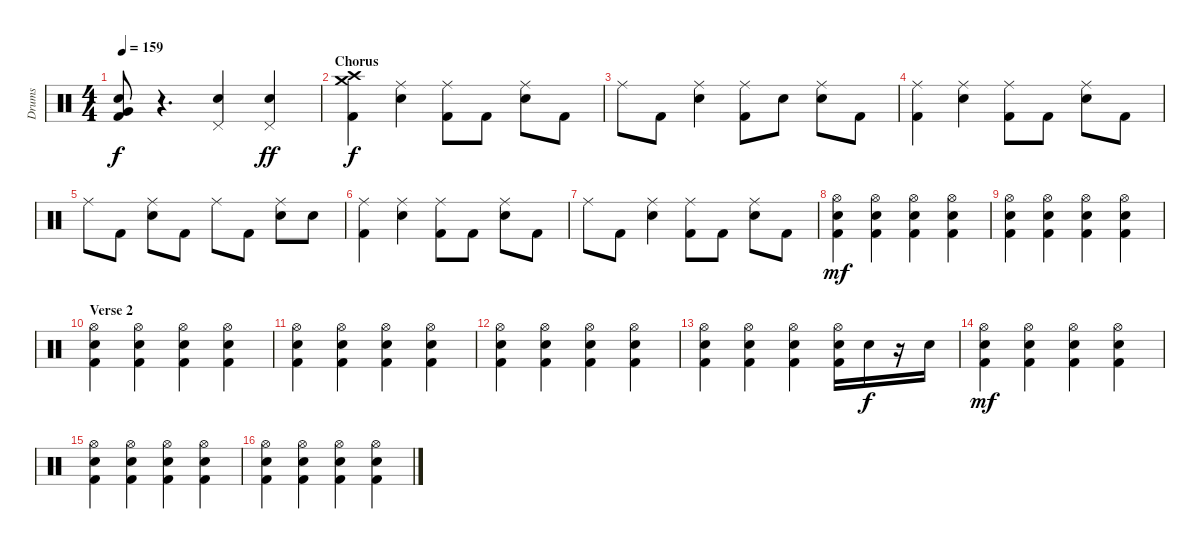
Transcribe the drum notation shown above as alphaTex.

\track ("Drums" "Drums") {instrument percussion}
\staff {score}
\articulation defaults
\ts (4 4)
\tempo 159
\clef neutral
\ks c
("Snare (hit) 2" "Very Low Tom (hit)" "Kick (hit) 2").8{dy f} r.4{d} ("Pedal Hi-Hat (hit)" "Snare (hit) 2").4 ("Pedal Hi-Hat (hit)" "Snare (hit) 2").4{dy ff} |
\section ("" "Chorus")
("Crash medium (hit)" "Crash high (hit)" "Kick (hit) 2").4{dy f} ("Ride (middle)" "Snare (hit) 2").4 ("Ride (middle)" "Kick (hit) 2").8 "Kick (hit) 2".8 ("Ride (middle)" "Snare (hit) 2").8 "Kick (hit) 2".8 |
"Ride (middle)".8 "Kick (hit) 2".8 ("Ride (middle)" "Snare (hit) 2").4 ("Ride (middle)" "Kick (hit) 2").8 "Snare (hit) 2".8 ("Ride (middle)" "Snare (hit) 2").8 "Kick (hit) 2".8 |
("Ride (middle)" "Kick (hit) 2").4 ("Ride (middle)" "Snare (hit) 2").4 ("Ride (middle)" "Kick (hit) 2").8 "Kick (hit) 2".8 ("Ride (middle)" "Snare (hit) 2").8 "Kick (hit) 2".8 |
"Ride (middle)".8 "Kick (hit) 2".8 ("Ride (middle)" "Snare (hit) 2").8 "Kick (hit) 2".8 "Ride (middle)".8 "Kick (hit) 2".8 ("Ride (middle)" "Snare (hit) 2").8 "Snare (hit) 2".8 |
("Ride (middle)" "Kick (hit) 2").4 ("Ride (middle)" "Snare (hit) 2").4 ("Ride (middle)" "Kick (hit) 2").8 "Kick (hit) 2".8 ("Ride (middle)" "Snare (hit) 2").8 "Kick (hit) 2".8 |
"Ride (middle)".8 "Kick (hit) 2".8 ("Ride (middle)" "Snare (hit) 2").4 ("Ride (middle)" "Kick (hit) 2").8 "Kick (hit) 2".8 ("Ride (middle)" "Snare (hit) 2").8 "Kick (hit) 2".8 |
("Hi-Hat (open)" "Snare (hit) 2" "Kick (hit) 2").4{dy mf} ("Hi-Hat (open)" "Snare (hit) 2" "Kick (hit) 2").4 ("Hi-Hat (open)" "Snare (hit) 2" "Kick (hit) 2").4 ("Hi-Hat (open)" "Snare (hit) 2" "Kick (hit) 2").4 |
("Hi-Hat (open)" "Snare (hit) 2" "Kick (hit) 2").4 ("Hi-Hat (open)" "Snare (hit) 2" "Kick (hit) 2").4 ("Hi-Hat (open)" "Snare (hit) 2" "Kick (hit) 2").4 ("Hi-Hat (open)" "Snare (hit) 2" "Kick (hit) 2").4 |
\section ("" "Verse 2")
("Hi-Hat (open)" "Snare (hit) 2" "Kick (hit) 2").4 ("Hi-Hat (open)" "Snare (hit) 2" "Kick (hit) 2").4 ("Hi-Hat (open)" "Snare (hit) 2" "Kick (hit) 2").4 ("Hi-Hat (open)" "Snare (hit) 2" "Kick (hit) 2").4 |
("Hi-Hat (open)" "Snare (hit) 2" "Kick (hit) 2").4 ("Hi-Hat (open)" "Snare (hit) 2" "Kick (hit) 2").4 ("Hi-Hat (open)" "Snare (hit) 2" "Kick (hit) 2").4 ("Hi-Hat (open)" "Snare (hit) 2" "Kick (hit) 2").4 |
("Hi-Hat (open)" "Snare (hit) 2" "Kick (hit) 2").4 ("Hi-Hat (open)" "Snare (hit) 2" "Kick (hit) 2").4 ("Hi-Hat (open)" "Snare (hit) 2" "Kick (hit) 2").4 ("Hi-Hat (open)" "Snare (hit) 2" "Kick (hit) 2").4 |
("Hi-Hat (open)" "Snare (hit) 2" "Kick (hit) 2").4 ("Hi-Hat (open)" "Snare (hit) 2" "Kick (hit) 2").4 ("Hi-Hat (open)" "Snare (hit) 2" "Kick (hit) 2").4 ("Hi-Hat (open)" "Snare (hit) 2" "Kick (hit) 2").16 "Snare (hit) 2".16{dy f} r.16 "Snare (hit) 2".16 |
("Hi-Hat (open)" "Snare (hit) 2" "Kick (hit) 2").4{dy mf} ("Hi-Hat (open)" "Snare (hit) 2" "Kick (hit) 2").4 ("Hi-Hat (open)" "Snare (hit) 2" "Kick (hit) 2").4 ("Hi-Hat (open)" "Snare (hit) 2" "Kick (hit) 2").4 |
("Hi-Hat (open)" "Snare (hit) 2" "Kick (hit) 2").4 ("Hi-Hat (open)" "Snare (hit) 2" "Kick (hit) 2").4 ("Hi-Hat (open)" "Snare (hit) 2" "Kick (hit) 2").4 ("Hi-Hat (open)" "Snare (hit) 2" "Kick (hit) 2").4 |
("Hi-Hat (open)" "Snare (hit) 2" "Kick (hit) 2").4 ("Hi-Hat (open)" "Snare (hit) 2" "Kick (hit) 2").4 ("Hi-Hat (open)" "Snare (hit) 2" "Kick (hit) 2").4 ("Hi-Hat (open)" "Snare (hit) 2" "Kick (hit) 2").4
